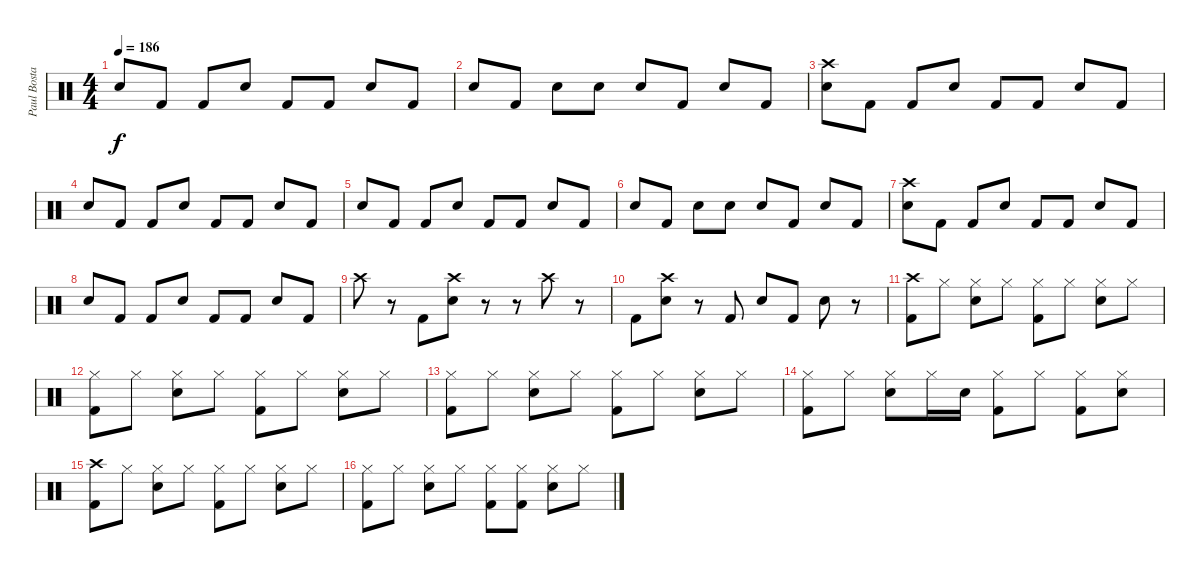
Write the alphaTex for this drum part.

\track ("Paul Bostaph" "Paul Bosta") {instrument percussion}
\staff {score}
\articulation defaults
\ts (4 4)
\tempo 186
\clef neutral
\ks c "Electric Snare (hit)".8{dy f} "Kick (hit) 2".8 "Kick (hit) 2".8 "Electric Snare (hit)".8 "Kick (hit) 2".8 "Kick (hit) 2".8 "Electric Snare (hit)".8 "Kick (hit) 2".8
|
"Electric Snare (hit)".8 "Kick (hit) 2".8 "Electric Snare (hit)".8 "Electric Snare (hit)".8 "Electric Snare (hit)".8 "Kick (hit) 2".8 "Electric Snare (hit)".8 "Kick (hit) 2".8 |
("Crash high (hit)" "Electric Snare (hit)").8 "Kick (hit) 2".8 "Kick (hit) 2".8 "Electric Snare (hit)".8 "Kick (hit) 2".8 "Kick (hit) 2".8 "Electric Snare (hit)".8 "Kick (hit) 2".8 |
"Electric Snare (hit)".8 "Kick (hit) 2".8 "Kick (hit) 2".8 "Electric Snare (hit)".8 "Kick (hit) 2".8 "Kick (hit) 2".8 "Electric Snare (hit)".8 "Kick (hit) 2".8 |
"Electric Snare (hit)".8 "Kick (hit) 2".8 "Kick (hit) 2".8 "Electric Snare (hit)".8 "Kick (hit) 2".8 "Kick (hit) 2".8 "Electric Snare (hit)".8 "Kick (hit) 2".8 |
"Electric Snare (hit)".8 "Kick (hit) 2".8 "Electric Snare (hit)".8 "Electric Snare (hit)".8 "Electric Snare (hit)".8 "Kick (hit) 2".8 "Electric Snare (hit)".8 "Kick (hit) 2".8 |
("Crash high (hit)" "Electric Snare (hit)").8 "Kick (hit) 2".8 "Kick (hit) 2".8 "Electric Snare (hit)".8 "Kick (hit) 2".8 "Kick (hit) 2".8 "Electric Snare (hit)".8 "Kick (hit) 2".8 |
"Electric Snare (hit)".8 "Kick (hit) 2".8 "Kick (hit) 2".8 "Electric Snare (hit)".8 "Kick (hit) 2".8 "Kick (hit) 2".8 "Electric Snare (hit)".8 "Kick (hit) 2".8 |
"Crash high (hit)".8 r.8 "Kick (hit) 2".8 ("Crash high (hit)" "Electric Snare (hit)").8 r.8 r.8 "Crash high (hit)".8 r.8 |
"Kick (hit) 2".8 ("Crash high (hit)" "Electric Snare (hit)").8 r.8 "Kick (hit) 2".8 "Electric Snare (hit)".8 "Kick (hit) 2".8 "Electric Snare (hit)".8 r.8 |
("Crash high (hit)" "Kick (hit) 2").8 "Hi-Hat (closed)".8 ("Hi-Hat (closed)" "Electric Snare (hit)").8 "Hi-Hat (closed)".8 ("Hi-Hat (closed)" "Kick (hit) 2").8 "Hi-Hat (closed)".8 ("Hi-Hat (closed)" "Electric Snare (hit)").8 "Hi-Hat (closed)".8 |
("Hi-Hat (closed)" "Kick (hit) 2").8 "Hi-Hat (closed)".8 ("Hi-Hat (closed)" "Electric Snare (hit)").8 "Hi-Hat (closed)".8 ("Hi-Hat (closed)" "Kick (hit) 2").8 "Hi-Hat (closed)".8 ("Hi-Hat (closed)" "Electric Snare (hit)").8 "Hi-Hat (closed)".8 |
("Hi-Hat (closed)" "Kick (hit) 2").8 "Hi-Hat (closed)".8 ("Hi-Hat (closed)" "Electric Snare (hit)").8 "Hi-Hat (closed)".8 ("Hi-Hat (closed)" "Kick (hit) 2").8 "Hi-Hat (closed)".8 ("Hi-Hat (closed)" "Electric Snare (hit)").8 "Hi-Hat (closed)".8 |
("Hi-Hat (closed)" "Kick (hit) 2").8 "Hi-Hat (closed)".8 ("Hi-Hat (closed)" "Electric Snare (hit)").8 "Hi-Hat (closed)".16 "Electric Snare (hit)".16 ("Hi-Hat (closed)" "Kick (hit) 2").8 "Hi-Hat (closed)".8 ("Hi-Hat (closed)" "Kick (hit) 2").8 ("Hi-Hat (closed)" "Electric Snare (hit)").8 |
("Crash high (hit)" "Kick (hit) 2").8 "Hi-Hat (closed)".8 ("Hi-Hat (closed)" "Electric Snare (hit)").8 "Hi-Hat (closed)".8 ("Hi-Hat (closed)" "Kick (hit) 2").8 "Hi-Hat (closed)".8 ("Hi-Hat (closed)" "Electric Snare (hit)").8 "Hi-Hat (closed)".8 |
("Hi-Hat (closed)" "Kick (hit) 2").8 "Hi-Hat (closed)".8 ("Hi-Hat (closed)" "Electric Snare (hit)").8 "Hi-Hat (closed)".8 ("Hi-Hat (closed)" "Kick (hit) 2").8 ("Hi-Hat (closed)" "Kick (hit) 2").8 ("Hi-Hat (closed)" "Electric Snare (hit)").8 "Hi-Hat (closed)".8
